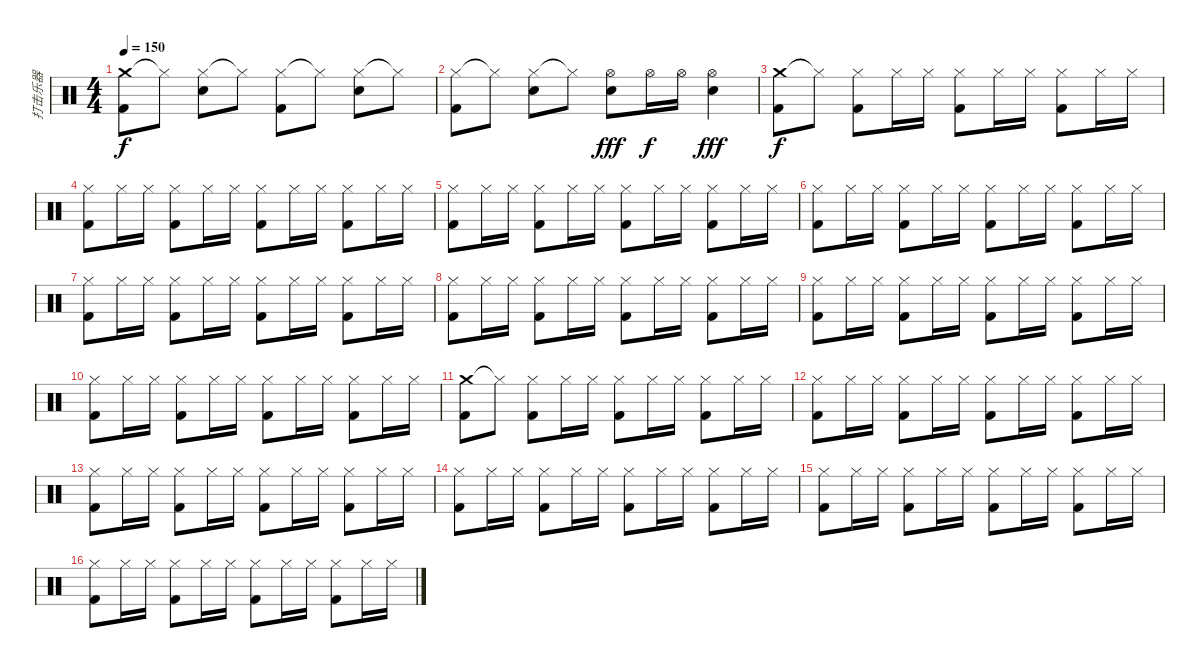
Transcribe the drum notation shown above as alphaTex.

\track ("打击乐器" "打击乐器") {instrument percussion}
\staff {score}
\articulation defaults
\ts (4 4)
\tempo 150
\clef neutral
\ks c
("Crash medium (hit)" "Kick (hit) 2").8{dy f} "Hi-Hat (closed)"{t}.8 ("Hi-Hat (closed)" "Snare (hit) 2").8 "Hi-Hat (closed)"{t}.8 ("Hi-Hat (closed)" "Kick (hit) 2").8 "Hi-Hat (closed)"{t}.8 ("Hi-Hat (closed)" "Snare (hit) 2").8 "Hi-Hat (closed)"{t}.8 |
("Hi-Hat (closed)" "Kick (hit) 2").8 "Hi-Hat (closed)"{t}.8 ("Hi-Hat (closed)" "Snare (hit) 2").8 "Hi-Hat (closed)"{t}.8 ("Hi-Hat (open)" "Snare (hit) 2").8{dy fff} "Hi-Hat (open)".16{dy f} "Hi-Hat (open)".16 ("Hi-Hat (open)" "Snare (hit) 2").4{dy fff} |
("Crash medium (hit)" "Kick (hit) 2").8{dy f} "Hi-Hat (closed)"{t}.8 ("Hi-Hat (closed)" "Kick (hit) 2").8 "Hi-Hat (closed)".16 "Hi-Hat (closed)".16 ("Hi-Hat (closed)" "Kick (hit) 2").8 "Hi-Hat (closed)".16 "Hi-Hat (closed)".16 ("Hi-Hat (closed)" "Kick (hit) 2").8 "Hi-Hat (closed)".16 "Hi-Hat (closed)".16 |
("Hi-Hat (closed)" "Kick (hit) 2").8 "Hi-Hat (closed)".16 "Hi-Hat (closed)".16 ("Hi-Hat (closed)" "Kick (hit) 2").8 "Hi-Hat (closed)".16 "Hi-Hat (closed)".16 ("Hi-Hat (closed)" "Kick (hit) 2").8 "Hi-Hat (closed)".16 "Hi-Hat (closed)".16 ("Hi-Hat (closed)" "Kick (hit) 2").8 "Hi-Hat (closed)".16 "Hi-Hat (closed)".16 |
("Hi-Hat (closed)" "Kick (hit) 2").8 "Hi-Hat (closed)".16 "Hi-Hat (closed)".16 ("Hi-Hat (closed)" "Kick (hit) 2").8 "Hi-Hat (closed)".16 "Hi-Hat (closed)".16 ("Hi-Hat (closed)" "Kick (hit) 2").8 "Hi-Hat (closed)".16 "Hi-Hat (closed)".16 ("Hi-Hat (closed)" "Kick (hit) 2").8 "Hi-Hat (closed)".16 "Hi-Hat (closed)".16 |
("Hi-Hat (closed)" "Kick (hit) 2").8 "Hi-Hat (closed)".16 "Hi-Hat (closed)".16 ("Hi-Hat (closed)" "Kick (hit) 2").8 "Hi-Hat (closed)".16 "Hi-Hat (closed)".16 ("Hi-Hat (closed)" "Kick (hit) 2").8 "Hi-Hat (closed)".16 "Hi-Hat (closed)".16 ("Hi-Hat (closed)" "Kick (hit) 2").8 "Hi-Hat (closed)".16 "Hi-Hat (closed)".16 |
("Hi-Hat (closed)" "Kick (hit) 2").8 "Hi-Hat (closed)".16 "Hi-Hat (closed)".16 ("Hi-Hat (closed)" "Kick (hit) 2").8 "Hi-Hat (closed)".16 "Hi-Hat (closed)".16 ("Hi-Hat (closed)" "Kick (hit) 2").8 "Hi-Hat (closed)".16 "Hi-Hat (closed)".16 ("Hi-Hat (closed)" "Kick (hit) 2").8 "Hi-Hat (closed)".16 "Hi-Hat (closed)".16 |
("Hi-Hat (closed)" "Kick (hit) 2").8 "Hi-Hat (closed)".16 "Hi-Hat (closed)".16 ("Hi-Hat (closed)" "Kick (hit) 2").8 "Hi-Hat (closed)".16 "Hi-Hat (closed)".16 ("Hi-Hat (closed)" "Kick (hit) 2").8 "Hi-Hat (closed)".16 "Hi-Hat (closed)".16 ("Hi-Hat (closed)" "Kick (hit) 2").8 "Hi-Hat (closed)".16 "Hi-Hat (closed)".16 |
("Hi-Hat (closed)" "Kick (hit) 2").8 "Hi-Hat (closed)".16 "Hi-Hat (closed)".16 ("Hi-Hat (closed)" "Kick (hit) 2").8 "Hi-Hat (closed)".16 "Hi-Hat (closed)".16 ("Hi-Hat (closed)" "Kick (hit) 2").8 "Hi-Hat (closed)".16 "Hi-Hat (closed)".16 ("Hi-Hat (closed)" "Kick (hit) 2").8 "Hi-Hat (closed)".16 "Hi-Hat (closed)".16 |
("Hi-Hat (closed)" "Kick (hit) 2").8 "Hi-Hat (closed)".16 "Hi-Hat (closed)".16 ("Hi-Hat (closed)" "Kick (hit) 2").8 "Hi-Hat (closed)".16 "Hi-Hat (closed)".16 ("Hi-Hat (closed)" "Kick (hit) 2").8 "Hi-Hat (closed)".16 "Hi-Hat (closed)".16 ("Hi-Hat (closed)" "Kick (hit) 2").8 "Hi-Hat (closed)".16 "Hi-Hat (closed)".16 |
("Crash medium (hit)" "Kick (hit) 2").8 "Hi-Hat (closed)"{t}.8 ("Hi-Hat (closed)" "Kick (hit) 2").8 "Hi-Hat (closed)".16 "Hi-Hat (closed)".16 ("Hi-Hat (closed)" "Kick (hit) 2").8 "Hi-Hat (closed)".16 "Hi-Hat (closed)".16 ("Hi-Hat (closed)" "Kick (hit) 2").8 "Hi-Hat (closed)".16 "Hi-Hat (closed)".16 |
("Hi-Hat (closed)" "Kick (hit) 2").8 "Hi-Hat (closed)".16 "Hi-Hat (closed)".16 ("Hi-Hat (closed)" "Kick (hit) 2").8 "Hi-Hat (closed)".16 "Hi-Hat (closed)".16 ("Hi-Hat (closed)" "Kick (hit) 2").8 "Hi-Hat (closed)".16 "Hi-Hat (closed)".16 ("Hi-Hat (closed)" "Kick (hit) 2").8 "Hi-Hat (closed)".16 "Hi-Hat (closed)".16 |
("Hi-Hat (closed)" "Kick (hit) 2").8 "Hi-Hat (closed)".16 "Hi-Hat (closed)".16 ("Hi-Hat (closed)" "Kick (hit) 2").8 "Hi-Hat (closed)".16 "Hi-Hat (closed)".16 ("Hi-Hat (closed)" "Kick (hit) 2").8 "Hi-Hat (closed)".16 "Hi-Hat (closed)".16 ("Hi-Hat (closed)" "Kick (hit) 2").8 "Hi-Hat (closed)".16 "Hi-Hat (closed)".16 |
("Hi-Hat (closed)" "Kick (hit) 2").8 "Hi-Hat (closed)".16 "Hi-Hat (closed)".16 ("Hi-Hat (closed)" "Kick (hit) 2").8 "Hi-Hat (closed)".16 "Hi-Hat (closed)".16 ("Hi-Hat (closed)" "Kick (hit) 2").8 "Hi-Hat (closed)".16 "Hi-Hat (closed)".16 ("Hi-Hat (closed)" "Kick (hit) 2").8 "Hi-Hat (closed)".16 "Hi-Hat (closed)".16 |
("Hi-Hat (closed)" "Kick (hit) 2").8 "Hi-Hat (closed)".16 "Hi-Hat (closed)".16 ("Hi-Hat (closed)" "Kick (hit) 2").8 "Hi-Hat (closed)".16 "Hi-Hat (closed)".16 ("Hi-Hat (closed)" "Kick (hit) 2").8 "Hi-Hat (closed)".16 "Hi-Hat (closed)".16 ("Hi-Hat (closed)" "Kick (hit) 2").8 "Hi-Hat (closed)".16 "Hi-Hat (closed)".16 |
("Hi-Hat (closed)" "Kick (hit) 2").8 "Hi-Hat (closed)".16 "Hi-Hat (closed)".16 ("Hi-Hat (closed)" "Kick (hit) 2").8 "Hi-Hat (closed)".16 "Hi-Hat (closed)".16 ("Hi-Hat (closed)" "Kick (hit) 2").8 "Hi-Hat (closed)".16 "Hi-Hat (closed)".16 ("Hi-Hat (closed)" "Kick (hit) 2").8 "Hi-Hat (closed)".16 "Hi-Hat (closed)".16
